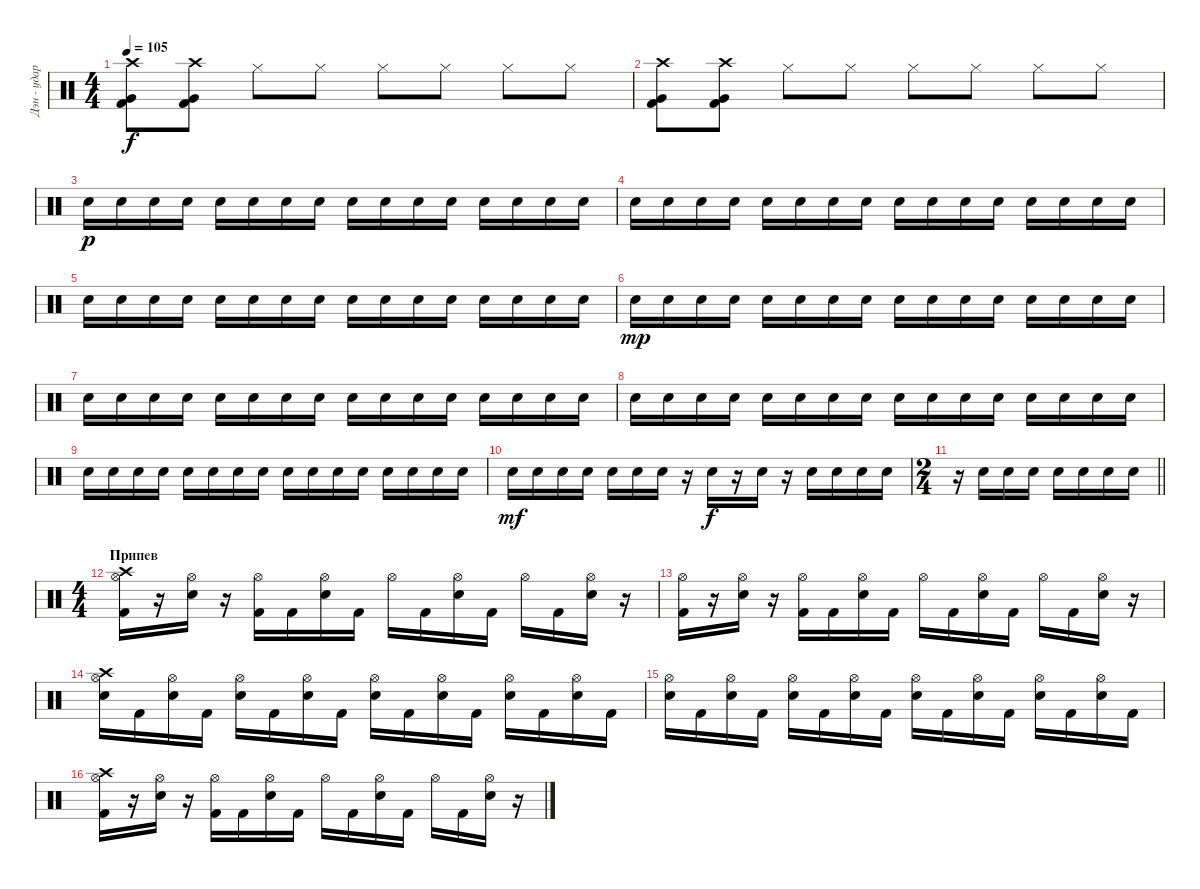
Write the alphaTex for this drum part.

\track ("Дэн - ударные" "Дэн - удар") {instrument percussion}
\staff {score}
\articulation defaults
\ts (4 4)
\tempo 105
\clef neutral
\ks c
("Crash high (hit)" "Very Low Tom (hit)" "Kick (hit) 2").8{dy f} ("Crash high (hit)" "Very Low Tom (hit)" "Kick (hit) 2").8 "Hi-Hat (closed)".8 "Hi-Hat (closed)".8 "Hi-Hat (closed)".8 "Hi-Hat (closed)".8 "Hi-Hat (closed)".8 "Hi-Hat (closed)".8 |
("Crash high (hit)" "Very Low Tom (hit)" "Kick (hit) 2").8 ("Crash high (hit)" "Very Low Tom (hit)" "Kick (hit) 2").8 "Hi-Hat (closed)".8 "Hi-Hat (closed)".8 "Hi-Hat (closed)".8 "Hi-Hat (closed)".8 "Hi-Hat (closed)".8 "Hi-Hat (closed)".8 |
"Electric Snare (hit)".16{dy p} "Electric Snare (hit)".16 "Electric Snare (hit)".16 "Electric Snare (hit)".16 "Electric Snare (hit)".16 "Electric Snare (hit)".16 "Electric Snare (hit)".16 "Electric Snare (hit)".16 "Electric Snare (hit)".16 "Electric Snare (hit)".16 "Electric Snare (hit)".16 "Electric Snare (hit)".16 "Electric Snare (hit)".16 "Electric Snare (hit)".16 "Electric Snare (hit)".16 "Electric Snare (hit)".16 |
"Electric Snare (hit)".16 "Electric Snare (hit)".16 "Electric Snare (hit)".16 "Electric Snare (hit)".16 "Electric Snare (hit)".16 "Electric Snare (hit)".16 "Electric Snare (hit)".16 "Electric Snare (hit)".16 "Electric Snare (hit)".16 "Electric Snare (hit)".16 "Electric Snare (hit)".16 "Electric Snare (hit)".16 "Electric Snare (hit)".16 "Electric Snare (hit)".16 "Electric Snare (hit)".16 "Electric Snare (hit)".16 |
"Electric Snare (hit)".16 "Electric Snare (hit)".16 "Electric Snare (hit)".16 "Electric Snare (hit)".16 "Electric Snare (hit)".16 "Electric Snare (hit)".16 "Electric Snare (hit)".16 "Electric Snare (hit)".16 "Electric Snare (hit)".16 "Electric Snare (hit)".16 "Electric Snare (hit)".16 "Electric Snare (hit)".16 "Electric Snare (hit)".16 "Electric Snare (hit)".16 "Electric Snare (hit)".16 "Electric Snare (hit)".16 |
"Electric Snare (hit)".16{dy mp} "Electric Snare (hit)".16 "Electric Snare (hit)".16 "Electric Snare (hit)".16 "Electric Snare (hit)".16 "Electric Snare (hit)".16 "Electric Snare (hit)".16 "Electric Snare (hit)".16 "Electric Snare (hit)".16 "Electric Snare (hit)".16 "Electric Snare (hit)".16 "Electric Snare (hit)".16 "Electric Snare (hit)".16 "Electric Snare (hit)".16 "Electric Snare (hit)".16 "Electric Snare (hit)".16 |
"Electric Snare (hit)".16 "Electric Snare (hit)".16 "Electric Snare (hit)".16 "Electric Snare (hit)".16 "Electric Snare (hit)".16 "Electric Snare (hit)".16 "Electric Snare (hit)".16 "Electric Snare (hit)".16 "Electric Snare (hit)".16 "Electric Snare (hit)".16 "Electric Snare (hit)".16 "Electric Snare (hit)".16 "Electric Snare (hit)".16 "Electric Snare (hit)".16 "Electric Snare (hit)".16 "Electric Snare (hit)".16 |
"Electric Snare (hit)".16 "Electric Snare (hit)".16 "Electric Snare (hit)".16 "Electric Snare (hit)".16 "Electric Snare (hit)".16 "Electric Snare (hit)".16 "Electric Snare (hit)".16 "Electric Snare (hit)".16 "Electric Snare (hit)".16 "Electric Snare (hit)".16 "Electric Snare (hit)".16 "Electric Snare (hit)".16 "Electric Snare (hit)".16 "Electric Snare (hit)".16 "Electric Snare (hit)".16 "Electric Snare (hit)".16 |
"Electric Snare (hit)".16 "Electric Snare (hit)".16 "Electric Snare (hit)".16 "Electric Snare (hit)".16 "Electric Snare (hit)".16 "Electric Snare (hit)".16 "Electric Snare (hit)".16 "Electric Snare (hit)".16 "Electric Snare (hit)".16 "Electric Snare (hit)".16 "Electric Snare (hit)".16 "Electric Snare (hit)".16 "Electric Snare (hit)".16 "Electric Snare (hit)".16 "Electric Snare (hit)".16 "Electric Snare (hit)".16 |
"Electric Snare (hit)".16{dy mf} "Electric Snare (hit)".16 "Electric Snare (hit)".16 "Electric Snare (hit)".16 "Electric Snare (hit)".16 "Electric Snare (hit)".16 "Electric Snare (hit)".16 r.16 "Electric Snare (hit)".16{dy f} r.16 "Electric Snare (hit)".16 r.16 "Electric Snare (hit)".16 "Electric Snare (hit)".16 "Electric Snare (hit)".16 "Electric Snare (hit)".16 |
\ts (2 4)
\barLineRight lightlight
r.16 "Electric Snare (hit)".16 "Electric Snare (hit)".16 "Electric Snare (hit)".16 "Electric Snare (hit)".16 "Electric Snare (hit)".16 "Electric Snare (hit)".16 "Electric Snare (hit)".16 |
\ts (4 4)
\section ("" "Припев")
("Crash high (hit)" "Hi-Hat (open)" "Kick (hit) 2").16 r.16 ("Hi-Hat (open)" "Electric Snare (hit)").16 r.16 ("Hi-Hat (open)" "Kick (hit) 2").16 "Kick (hit) 2".16 ("Hi-Hat (open)" "Electric Snare (hit)").16 "Kick (hit) 2".16 "Hi-Hat (open)".16 "Kick (hit) 2".16 ("Hi-Hat (open)" "Electric Snare (hit)").16 "Kick (hit) 2".16 "Hi-Hat (open)".16 "Kick (hit) 2".16 ("Hi-Hat (open)" "Electric Snare (hit)").16 r.16 |
("Hi-Hat (open)" "Kick (hit) 2").16 r.16 ("Hi-Hat (open)" "Electric Snare (hit)").16 r.16 ("Hi-Hat (open)" "Kick (hit) 2").16 "Kick (hit) 2".16 ("Hi-Hat (open)" "Electric Snare (hit)").16 "Kick (hit) 2".16 "Hi-Hat (open)".16 "Kick (hit) 2".16 ("Hi-Hat (open)" "Electric Snare (hit)").16 "Kick (hit) 2".16 "Hi-Hat (open)".16 "Kick (hit) 2".16 ("Hi-Hat (open)" "Electric Snare (hit)").16 r.16 |
("Crash high (hit)" "Hi-Hat (open)" "Electric Snare (hit)").16 "Kick (hit) 2".16 ("Hi-Hat (open)" "Electric Snare (hit)").16 "Kick (hit) 2".16 ("Hi-Hat (open)" "Electric Snare (hit)").16 "Kick (hit) 2".16 ("Hi-Hat (open)" "Electric Snare (hit)").16 "Kick (hit) 2".16 ("Hi-Hat (open)" "Electric Snare (hit)").16 "Kick (hit) 2".16 ("Hi-Hat (open)" "Electric Snare (hit)").16 "Kick (hit) 2".16 ("Hi-Hat (open)" "Electric Snare (hit)").16 "Kick (hit) 2".16 ("Hi-Hat (open)" "Electric Snare (hit)").16 "Kick (hit) 2".16 |
("Hi-Hat (open)" "Electric Snare (hit)").16 "Kick (hit) 2".16 ("Hi-Hat (open)" "Electric Snare (hit)").16 "Kick (hit) 2".16 ("Hi-Hat (open)" "Electric Snare (hit)").16 "Kick (hit) 2".16 ("Hi-Hat (open)" "Electric Snare (hit)").16 "Kick (hit) 2".16 ("Hi-Hat (open)" "Electric Snare (hit)").16 "Kick (hit) 2".16 ("Hi-Hat (open)" "Electric Snare (hit)").16 "Kick (hit) 2".16 ("Hi-Hat (open)" "Electric Snare (hit)").16 "Kick (hit) 2".16 ("Hi-Hat (open)" "Electric Snare (hit)").16 "Kick (hit) 2".16 |
("Crash high (hit)" "Hi-Hat (open)" "Kick (hit) 2").16 r.16 ("Hi-Hat (open)" "Electric Snare (hit)").16 r.16 ("Hi-Hat (open)" "Kick (hit) 2").16 "Kick (hit) 2".16 ("Hi-Hat (open)" "Electric Snare (hit)").16 "Kick (hit) 2".16 "Hi-Hat (open)".16 "Kick (hit) 2".16 ("Hi-Hat (open)" "Electric Snare (hit)").16 "Kick (hit) 2".16 "Hi-Hat (open)".16 "Kick (hit) 2".16 ("Hi-Hat (open)" "Electric Snare (hit)").16 r.16
